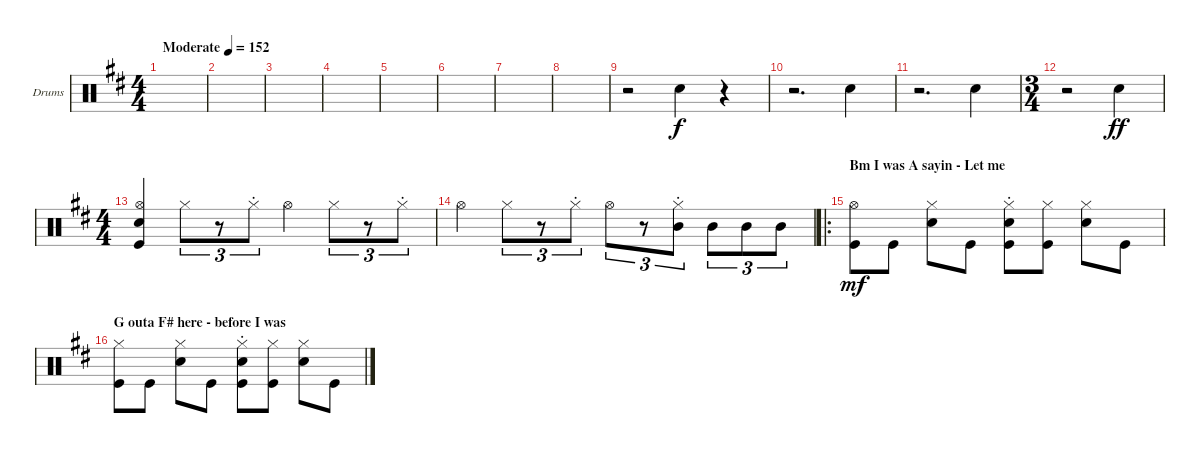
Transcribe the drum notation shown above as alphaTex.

\bracketExtendMode groupsimilarinstruments
\firstSystemTrackNameOrientation horizontal
\otherSystemsTrackNameOrientation horizontal
\track ("Drums - Marc Bell" "Drums") {instrument percussion}
\staff {score}
\articulation defaults
\ts (4 4)
\beaming (8 2 2 2 2)
\tempo (152 "Moderate")
\clef neutral
\ks d
|
|
|
|
|
|
|
|
r.2 "Snare (hit) 2".4 r.4 |
r.2{d} "Snare (hit) 2".4 |
r.2{d} "Snare (hit) 2".4 |
\ts (3 4)
r.2 "Snare (hit) 2".4{dy ff} |
\ts (4 4)
("Hi-Hat (open)" "Snare (hit) 2" "Kick (hit)").4 "Hi-Hat (closed)".8{tu (3 2)} r.8{tu (3 2)} "Hi-Hat (closed)"{st}.8{tu (3 2)} "Hi-Hat (open)".4 "Hi-Hat (closed)".8{tu (3 2)} r.8{tu (3 2)} "Hi-Hat (closed)"{st}.8{tu (3 2)} |
"Hi-Hat (open)".4 "Hi-Hat (closed)".8{tu (3 2)} r.8{tu (3 2)} "Hi-Hat (closed)"{st}.8{tu (3 2)} "Hi-Hat (open)".8{tu (3 2)} r.8{tu (3 2)} ("Hi-Hat (closed)"{st} "Mid Tom (hit)").8{tu (3 2)} "Mid Tom (hit)".8{tu (3 2)} "Mid Tom (hit)".8{tu (3 2)} "Mid Tom (hit)".8{tu (3 2)} |
\ro
\section ("" "Bm I was A sayin - Let me")
("Kick (hit)" "Hi-Hat (open)").8{dy mf} "Kick (hit)".8 ("Snare (hit) 2" "Hi-Hat (closed)").8 "Kick (hit)".8 ("Snare (hit) 2" "Kick (hit)" "Hi-Hat (closed)"{st}).8 ("Kick (hit)" "Hi-Hat (closed)").8 ("Snare (hit) 2" "Hi-Hat (closed)").8 "Kick (hit)".8 |
\section ("" "G outa F# here - before I was")
("Kick (hit)" "Hi-Hat (closed)").8 "Kick (hit)".8 ("Snare (hit) 2" "Hi-Hat (closed)").8 "Kick (hit)".8 ("Snare (hit) 2" "Kick (hit)" "Hi-Hat (closed)"{st}).8 ("Kick (hit)" "Hi-Hat (closed)").8 ("Snare (hit) 2" "Hi-Hat (closed)").8 "Kick (hit)".8
